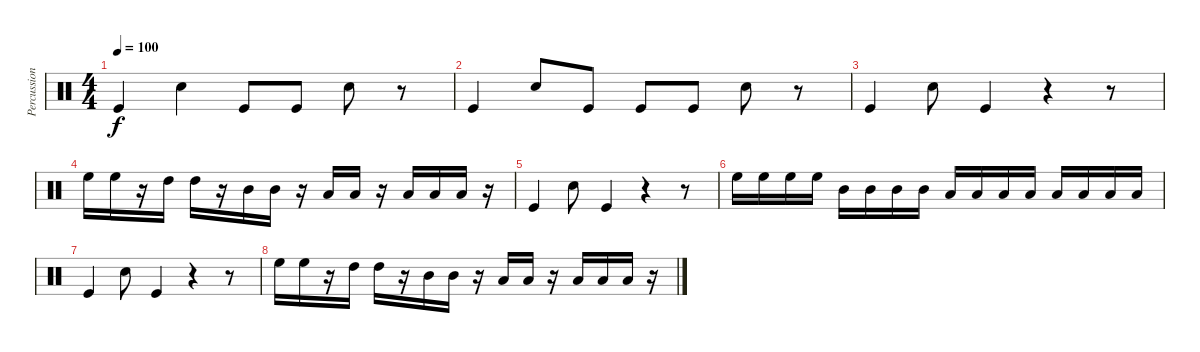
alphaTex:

\track ("Percussion" "Percussion") {instrument percussion}
\staff {score}
\articulation defaults
\ts (4 4)
\tempo 100
\clef neutral
\ks c "Kick (hit)".4{dy f} "Snare (hit) 2".4 "Kick (hit)".8 "Kick (hit)".8 "Snare (hit) 2".8
r.8 |
"Kick (hit)".4 "Snare (hit) 2".8 "Kick (hit)".8 "Kick (hit)".8 "Kick (hit)".8 "Snare (hit) 2".8 r.8 |
"Kick (hit)".4 "Snare (hit) 2".8 "Kick (hit)".4 r.4 r.8 |
"High Floor Tom (hit)".16 "High Floor Tom (hit)".16 r.16 "High Tom (hit)".16 "High Tom (hit)".16 r.16 "Mid Tom (hit)".16 "Mid Tom (hit)".16 r.16 "Low Tom (hit)".16 "Low Tom (hit)".16 r.16 "Low Floor Tom (hit)".16 "Low Floor Tom (hit)".16 "Low Floor Tom (hit)".16 r.16 |
"Kick (hit)".4 "Snare (hit) 2".8 "Kick (hit)".4 r.4 r.8 |
"High Floor Tom (hit)".16 "High Floor Tom (hit)".16 "High Floor Tom (hit)".16 "High Floor Tom (hit)".16 "Mid Tom (hit)".16 "Mid Tom (hit)".16 "Mid Tom (hit)".16 "Mid Tom (hit)".16 "Low Tom (hit)".16 "Low Tom (hit)".16 "Low Tom (hit)".16 "Low Tom (hit)".16 "Low Floor Tom (hit)".16 "Low Floor Tom (hit)".16 "Low Floor Tom (hit)".16 "Low Floor Tom (hit)".16 |
"Kick (hit)".4 "Snare (hit) 2".8 "Kick (hit)".4 r.4 r.8 |
"High Floor Tom (hit)".16 "High Floor Tom (hit)".16 r.16 "High Tom (hit)".16 "High Tom (hit)".16 r.16 "Mid Tom (hit)".16 "Mid Tom (hit)".16 r.16 "Low Tom (hit)".16 "Low Tom (hit)".16 r.16 "Low Floor Tom (hit)".16 "Low Floor Tom (hit)".16 "Low Floor Tom (hit)".16 r.16
